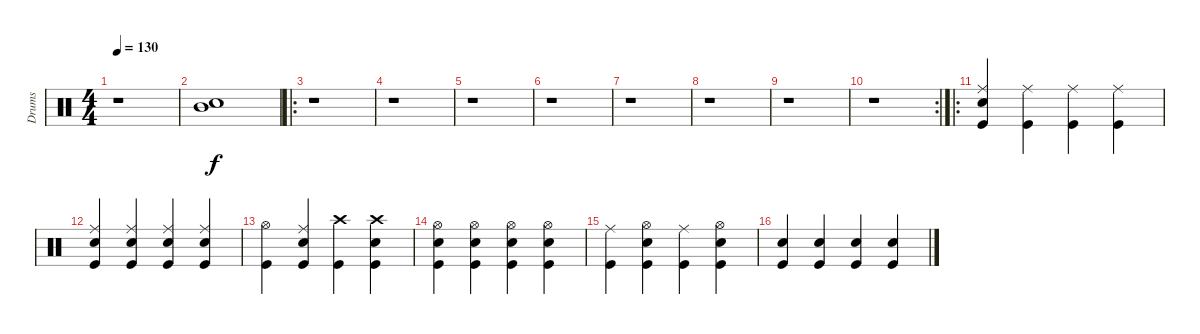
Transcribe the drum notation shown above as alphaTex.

\track ("Drums" "Drums") {instrument percussion}
\staff {score}
\articulation defaults
\ts (4 4)
\tempo 130
\clef neutral
\ks c
r.1{dy f} |
("Snare (hit) 2" "Mid Tom (hit)").1 |
\ro
r.1 |
r.1 |
r.1 |
r.1 |
r.1 |
r.1 |
r.1 |
\rc 2
r.1 |
\ro
("Ride (middle)" "Snare (hit) 2" "Kick (hit)").4 ("Ride (middle)" "Kick (hit)").4 ("Ride (middle)" "Kick (hit)").4 ("Ride (middle)" "Kick (hit)").4 |
("Ride (middle)" "Snare (hit) 2" "Kick (hit)").4 ("Ride (middle)" "Snare (hit) 2" "Kick (hit)").4 ("Ride (middle)" "Snare (hit) 2" "Kick (hit)").4 ("Ride (middle)" "Snare (hit) 2" "Kick (hit)").4 |
("Hi-Hat (open)" "Kick (hit)").4 ("Ride (middle)" "Snare (hit) 2" "Kick (hit)").4 ("Crash high (hit)" "Kick (hit)").4 ("Crash high (hit)" "Snare (hit) 2" "Kick (hit)").4 |
("Hi-Hat (open)" "Snare (hit) 2" "Kick (hit)").4 ("Hi-Hat (open)" "Snare (hit) 2" "Kick (hit)").4 ("Hi-Hat (open)" "Snare (hit) 2" "Kick (hit)").4 ("Hi-Hat (open)" "Snare (hit) 2" "Kick (hit)").4 |
("Ride (middle)" "Kick (hit)").4 ("Hi-Hat (open)" "Snare (hit) 2" "Kick (hit)").4 ("Ride (middle)" "Kick (hit)").4 ("Hi-Hat (open)" "Snare (hit) 2" "Kick (hit)").4 |
("Snare (hit) 2" "Kick (hit)").4 ("Snare (hit) 2" "Kick (hit)").4 ("Snare (hit) 2" "Kick (hit)").4 ("Snare (hit) 2" "Kick (hit)").4
